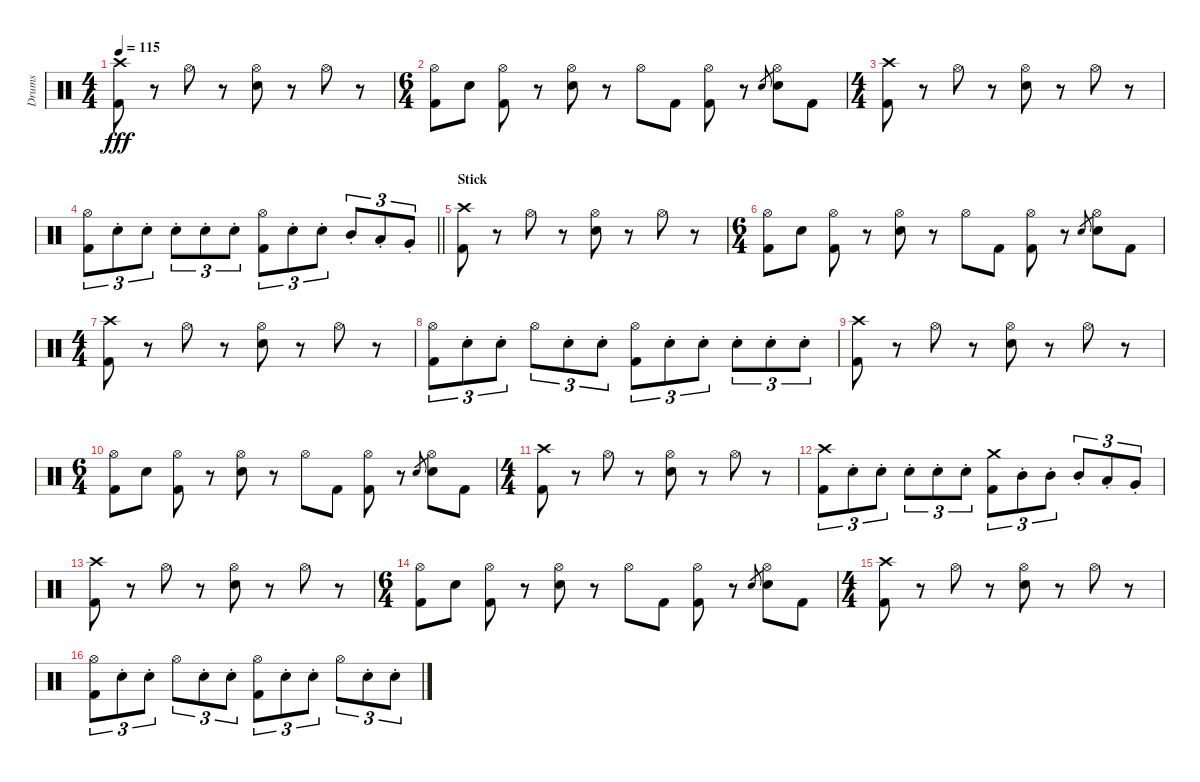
\track ("Drums" "Drums") {instrument percussion}
\staff {score}
\articulation defaults
\ts (4 4)
\tempo 115
\clef neutral
\ks c
("Crash high (hit)" "Kick (hit) 2").8{dy fff} r.8 "Hi-Hat (open)".8 r.8 ("Hi-Hat (open)" "Electric Snare (hit)").8 r.8 "Hi-Hat (open)".8 r.8 |
\ts (6 4)
("Hi-Hat (open)" "Kick (hit) 2").8 "Electric Snare (hit)".8 ("Hi-Hat (open)" "Kick (hit) 2").8 r.8 ("Hi-Hat (open)" "Electric Snare (hit)").8 r.8 "Hi-Hat (open)".8 "Kick (hit) 2".8 ("Hi-Hat (open)" "Kick (hit) 2").8 r.8 "Electric Snare (hit)".8{gr} ("Hi-Hat (open)" "Electric Snare (hit)").8 "Kick (hit) 2".8 |
\ts (4 4)
("Crash high (hit)" "Kick (hit) 2").8 r.8 "Hi-Hat (open)".8 r.8 ("Hi-Hat (open)" "Electric Snare (hit)").8 r.8 "Hi-Hat (open)".8 r.8 |
\barLineRight lightlight
("Hi-Hat (open)" "Kick (hit) 2").8{tu (3 2)} "Electric Snare (hit)"{st}.8{tu (3 2)} "Electric Snare (hit)"{st}.8{tu (3 2)} "Electric Snare (hit)"{st}.8{tu (3 2)} "Electric Snare (hit)"{st}.8{tu (3 2)} "Electric Snare (hit)"{st}.8{tu (3 2)} ("Hi-Hat (open)" "Kick (hit) 2").8{tu (3 2)} "Electric Snare (hit)"{st}.8{tu (3 2)} "Electric Snare (hit)"{st}.8{tu (3 2)} "Mid Tom (hit)"{st}.8{tu (3 2)} "Low Tom (hit)"{st}.8{tu (3 2)} "Very Low Tom (hit)"{st}.8{tu (3 2)} |
\section ("" "Stick")
("Crash high (hit)" "Kick (hit) 2").8 r.8 "Hi-Hat (open)".8 r.8 ("Hi-Hat (open)" "Electric Snare (hit)").8 r.8 "Hi-Hat (open)".8 r.8 |
\ts (6 4)
("Hi-Hat (open)" "Kick (hit) 2").8 "Electric Snare (hit)".8 ("Hi-Hat (open)" "Kick (hit) 2").8 r.8 ("Hi-Hat (open)" "Electric Snare (hit)").8 r.8 "Hi-Hat (open)".8 "Kick (hit) 2".8 ("Hi-Hat (open)" "Kick (hit) 2").8 r.8 "Electric Snare (hit)".8{gr} ("Hi-Hat (open)" "Electric Snare (hit)").8 "Kick (hit) 2".8 |
\ts (4 4)
("Crash high (hit)" "Kick (hit) 2").8 r.8 "Hi-Hat (open)".8 r.8 ("Hi-Hat (open)" "Electric Snare (hit)").8 r.8 "Hi-Hat (open)".8 r.8 |
("Hi-Hat (open)" "Kick (hit) 2").8{tu (3 2)} "Electric Snare (hit)"{st}.8{tu (3 2)} "Electric Snare (hit)"{st}.8{tu (3 2)} "Hi-Hat (open)".8{tu (3 2)} "Electric Snare (hit)"{st}.8{tu (3 2)} "Electric Snare (hit)"{st}.8{tu (3 2)} ("Hi-Hat (open)" "Kick (hit) 2").8{tu (3 2)} "Electric Snare (hit)"{st}.8{tu (3 2)} "Electric Snare (hit)"{st}.8{tu (3 2)} "Electric Snare (hit)"{st}.8{tu (3 2)} "Electric Snare (hit)"{st}.8{tu (3 2)} "Electric Snare (hit)"{st}.8{tu (3 2)} |
("Crash high (hit)" "Kick (hit) 2").8 r.8 "Hi-Hat (open)".8 r.8 ("Hi-Hat (open)" "Electric Snare (hit)").8 r.8 "Hi-Hat (open)".8 r.8 |
\ts (6 4)
("Hi-Hat (open)" "Kick (hit) 2").8 "Electric Snare (hit)".8 ("Hi-Hat (open)" "Kick (hit) 2").8 r.8 ("Hi-Hat (open)" "Electric Snare (hit)").8 r.8 "Hi-Hat (open)".8 "Kick (hit) 2".8 ("Hi-Hat (open)" "Kick (hit) 2").8 r.8 "Electric Snare (hit)".8{gr} ("Hi-Hat (open)" "Electric Snare (hit)").8 "Kick (hit) 2".8 |
\ts (4 4)
("Crash high (hit)" "Kick (hit) 2").8 r.8 "Hi-Hat (open)".8 r.8 ("Hi-Hat (open)" "Electric Snare (hit)").8 r.8 "Hi-Hat (open)".8 r.8 |
("Crash high (hit)" "Kick (hit) 2").8{tu (3 2)} "Electric Snare (hit)"{st}.8{tu (3 2)} "Electric Snare (hit)"{st}.8{tu (3 2)} "Electric Snare (hit)"{st}.8{tu (3 2)} "Electric Snare (hit)"{st}.8{tu (3 2)} "Electric Snare (hit)"{st}.8{tu (3 2)} ("Crash medium (hit)" "Kick (hit) 2").8{tu (3 2)} "Mid Tom (hit)"{st}.8{tu (3 2)} "Mid Tom (hit)"{st}.8{tu (3 2)} "Mid Tom (hit)"{st}.8{tu (3 2)} "Low Tom (hit)"{st}.8{tu (3 2)} "Very Low Tom (hit)"{st}.8{tu (3 2)} |
("Crash high (hit)" "Kick (hit) 2").8 r.8 "Hi-Hat (open)".8 r.8 ("Hi-Hat (open)" "Electric Snare (hit)").8 r.8 "Hi-Hat (open)".8 r.8 |
\ts (6 4)
("Hi-Hat (open)" "Kick (hit) 2").8 "Electric Snare (hit)".8 ("Hi-Hat (open)" "Kick (hit) 2").8 r.8 ("Hi-Hat (open)" "Electric Snare (hit)").8 r.8 "Hi-Hat (open)".8 "Kick (hit) 2".8 ("Hi-Hat (open)" "Kick (hit) 2").8 r.8 "Electric Snare (hit)".8{gr} ("Hi-Hat (open)" "Electric Snare (hit)").8 "Kick (hit) 2".8 |
\ts (4 4)
("Crash high (hit)" "Kick (hit) 2").8 r.8 "Hi-Hat (open)".8 r.8 ("Hi-Hat (open)" "Electric Snare (hit)").8 r.8 "Hi-Hat (open)".8 r.8 |
("Hi-Hat (open)" "Kick (hit) 2").8{tu (3 2)} "Electric Snare (hit)"{st}.8{tu (3 2)} "Electric Snare (hit)"{st}.8{tu (3 2)} "Hi-Hat (open)".8{tu (3 2)} "Electric Snare (hit)"{st}.8{tu (3 2)} "Electric Snare (hit)"{st}.8{tu (3 2)} ("Hi-Hat (open)" "Kick (hit) 2").8{tu (3 2)} "Electric Snare (hit)"{st}.8{tu (3 2)} "Electric Snare (hit)"{st}.8{tu (3 2)} "Hi-Hat (open)".8{tu (3 2)} "Electric Snare (hit)"{st}.8{tu (3 2)} "Electric Snare (hit)"{st}.8{tu (3 2)}
